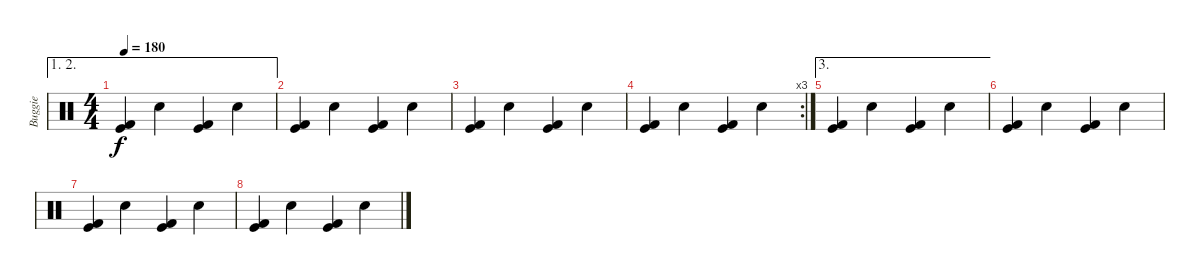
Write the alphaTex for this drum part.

\track ("Buggie" "Buggie") {instrument percussion}
\staff {score}
\articulation defaults
\ae (1 2)
\ts (4 4)
\tempo 180
\clef neutral
\ks c
("Kick (hit)" "Kick (hit) 2").4{dy f} "Electric Snare (hit)".4 ("Kick (hit)" "Kick (hit) 2").4 "Electric Snare (hit)".4 |
("Kick (hit)" "Kick (hit) 2").4 "Electric Snare (hit)".4 ("Kick (hit)" "Kick (hit) 2").4 "Electric Snare (hit)".4 |
("Kick (hit)" "Kick (hit) 2").4 "Electric Snare (hit)".4 ("Kick (hit)" "Kick (hit) 2").4 "Electric Snare (hit)".4 |
\rc 3
("Kick (hit)" "Kick (hit) 2").4 "Electric Snare (hit)".4 ("Kick (hit)" "Kick (hit) 2").4 "Electric Snare (hit)".4 |
\ae 3
("Kick (hit)" "Kick (hit) 2").4 "Electric Snare (hit)".4 ("Kick (hit)" "Kick (hit) 2").4 "Electric Snare (hit)".4 |
("Kick (hit)" "Kick (hit) 2").4 "Electric Snare (hit)".4 ("Kick (hit)" "Kick (hit) 2").4 "Electric Snare (hit)".4 |
("Kick (hit)" "Kick (hit) 2").4 "Electric Snare (hit)".4 ("Kick (hit)" "Kick (hit) 2").4 "Electric Snare (hit)".4 |
("Kick (hit)" "Kick (hit) 2").4 "Electric Snare (hit)".4 ("Kick (hit)" "Kick (hit) 2").4 "Electric Snare (hit)".4
